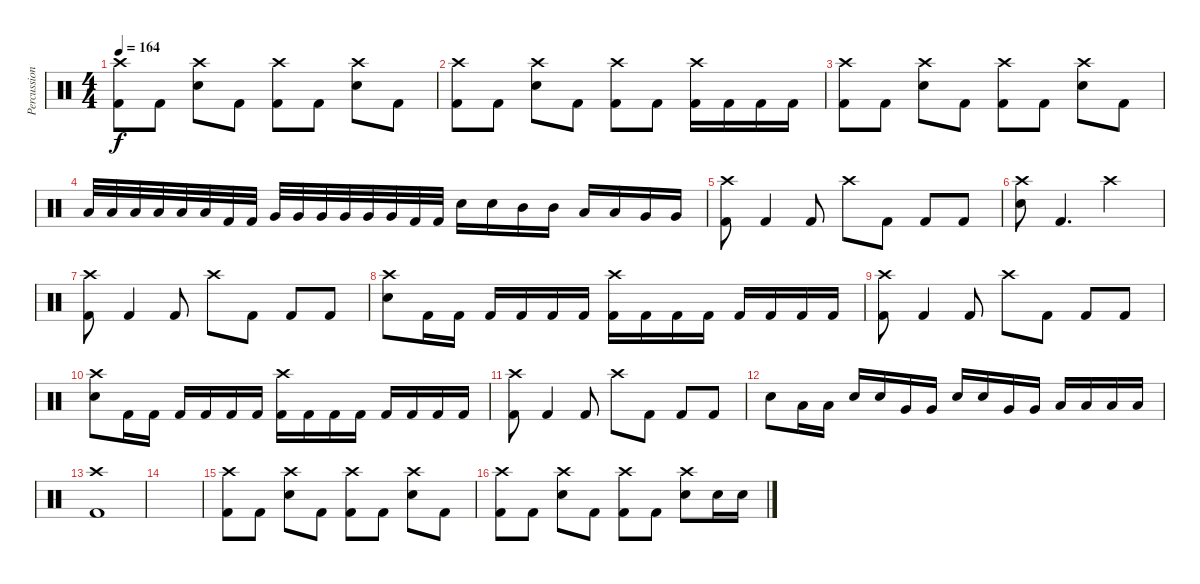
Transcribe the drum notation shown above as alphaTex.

\track ("Percussion" "Percussion") {instrument percussion}
\staff {score}
\articulation defaults
\ts (4 4)
\tempo 164
\clef neutral
\ks c
("Crash high (hit)" "Kick (hit) 2").8{dy f} "Kick (hit) 2".8 ("Crash high (hit)" "Electric Snare (hit)").8 "Kick (hit) 2".8 ("Crash high (hit)" "Kick (hit) 2").8 "Kick (hit) 2".8 ("Crash high (hit)" "Electric Snare (hit)").8 "Kick (hit) 2".8 |
("Crash high (hit)" "Kick (hit) 2").8 "Kick (hit) 2".8 ("Crash high (hit)" "Electric Snare (hit)").8 "Kick (hit) 2".8 ("Crash high (hit)" "Kick (hit) 2").8 "Kick (hit) 2".8 ("Crash high (hit)" "Kick (hit) 2").16 "Kick (hit) 2".16 "Kick (hit) 2".16 "Kick (hit) 2".16 |
("Crash high (hit)" "Kick (hit) 2").8 "Kick (hit) 2".8 ("Crash high (hit)" "Electric Snare (hit)").8 "Kick (hit) 2".8 ("Crash high (hit)" "Kick (hit) 2").8 "Kick (hit) 2".8 ("Crash high (hit)" "Electric Snare (hit)").8 "Kick (hit) 2".8 |
"Low Tom (hit)".32 "Low Tom (hit)".32 "Low Tom (hit)".32 "Low Tom (hit)".32 "Low Tom (hit)".32 "Low Tom (hit)".32 "Kick (hit) 2".32 "Kick (hit) 2".32 "Very Low Tom (hit)".32 "Very Low Tom (hit)".32 "Very Low Tom (hit)".32 "Very Low Tom (hit)".32 "Very Low Tom (hit)".32 "Very Low Tom (hit)".32 "Kick (hit) 2".32 "Kick (hit) 2".32 "Electric Snare (hit)".16 "Electric Snare (hit)".16 "Mid Tom (hit)".16 "Mid Tom (hit)".16 "Low Tom (hit)".16 "Low Tom (hit)".16 "Very Low Tom (hit)".16 "Very Low Tom (hit)".16 |
("Crash high (hit)" "Kick (hit) 2").8 "Kick (hit) 2".4 "Kick (hit) 2".8 "Crash high (hit)".8 "Kick (hit) 2".8 "Kick (hit) 2".8 "Kick (hit) 2".8 |
("Crash high (hit)" "Electric Snare (hit)").8 "Kick (hit) 2".4{d} "Crash high (hit)".2 |
("Crash high (hit)" "Kick (hit) 2").8 "Kick (hit) 2".4 "Kick (hit) 2".8 "Crash high (hit)".8 "Kick (hit) 2".8 "Kick (hit) 2".8 "Kick (hit) 2".8 |
("Crash high (hit)" "Electric Snare (hit)").8 "Kick (hit) 2".16 "Kick (hit) 2".16 "Kick (hit) 2".16 "Kick (hit) 2".16 "Kick (hit) 2".16 "Kick (hit) 2".16 ("Crash high (hit)" "Kick (hit) 2").16 "Kick (hit) 2".16 "Kick (hit) 2".16 "Kick (hit) 2".16 "Kick (hit) 2".16 "Kick (hit) 2".16 "Kick (hit) 2".16 "Kick (hit) 2".16 |
("Crash high (hit)" "Kick (hit) 2").8 "Kick (hit) 2".4 "Kick (hit) 2".8 "Crash high (hit)".8 "Kick (hit) 2".8 "Kick (hit) 2".8 "Kick (hit) 2".8 |
("Crash high (hit)" "Electric Snare (hit)").8 "Kick (hit) 2".16 "Kick (hit) 2".16 "Kick (hit) 2".16 "Kick (hit) 2".16 "Kick (hit) 2".16 "Kick (hit) 2".16 ("Crash high (hit)" "Kick (hit) 2").16 "Kick (hit) 2".16 "Kick (hit) 2".16 "Kick (hit) 2".16 "Kick (hit) 2".16 "Kick (hit) 2".16 "Kick (hit) 2".16 "Kick (hit) 2".16 |
("Crash high (hit)" "Kick (hit) 2").8 "Kick (hit) 2".4 "Kick (hit) 2".8 "Crash high (hit)".8 "Kick (hit) 2".8 "Kick (hit) 2".8 "Kick (hit) 2".8 |
"Electric Snare (hit)".8 "Low Tom (hit)".16 "Low Tom (hit)".16 "Electric Snare (hit)".16 "Electric Snare (hit)".16 "Very Low Tom (hit)".16 "Very Low Tom (hit)".16 "Electric Snare (hit)".16 "Electric Snare (hit)".16 "Very Low Tom (hit)".16 "Very Low Tom (hit)".16 "Low Floor Tom (hit)".16 "Low Floor Tom (hit)".16 "Low Floor Tom (hit)".16 "Low Floor Tom (hit)".16 |
("Crash high (hit)" "Kick (hit) 2").1 |
|
("Crash high (hit)" "Kick (hit) 2").8 "Kick (hit) 2".8 ("Crash high (hit)" "Electric Snare (hit)").8 "Kick (hit) 2".8 ("Crash high (hit)" "Kick (hit) 2").8 "Kick (hit) 2".8 ("Crash high (hit)" "Electric Snare (hit)").8 "Kick (hit) 2".8 |
("Crash high (hit)" "Kick (hit) 2").8 "Kick (hit) 2".8 ("Crash high (hit)" "Electric Snare (hit)").8 "Kick (hit) 2".8 ("Crash high (hit)" "Kick (hit) 2").8 "Kick (hit) 2".8 ("Crash high (hit)" "Electric Snare (hit)").8 "Electric Snare (hit)".16 "Electric Snare (hit)".16
